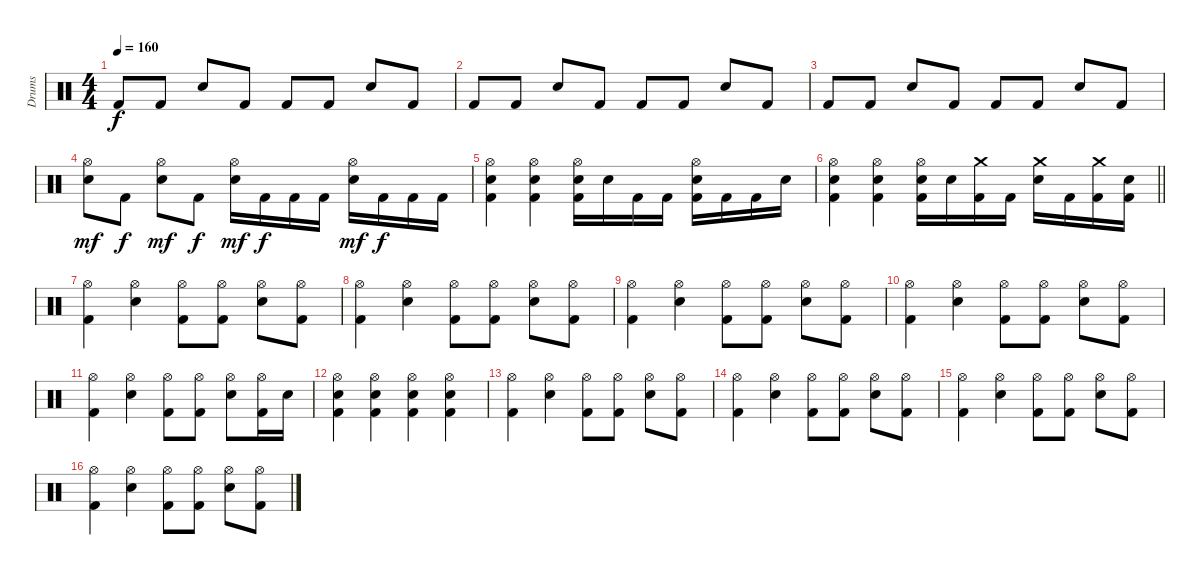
\track ("Drums" "Drums") {instrument percussion}
\staff {score}
\articulation defaults
\ts (4 4)
\tempo 160
\clef neutral
\ks c "Kick (hit) 2".8{dy f} "Kick (hit) 2".8 "Snare (hit) 2".8 "Kick (hit) 2".8 "Kick (hit) 2".8 "Kick (hit) 2".8 "Snare (hit) 2".8 "Kick (hit) 2".8
|
"Kick (hit) 2".8 "Kick (hit) 2".8 "Snare (hit) 2".8 "Kick (hit) 2".8 "Kick (hit) 2".8 "Kick (hit) 2".8 "Snare (hit) 2".8 "Kick (hit) 2".8 |
"Kick (hit) 2".8 "Kick (hit) 2".8 "Snare (hit) 2".8 "Kick (hit) 2".8 "Kick (hit) 2".8 "Kick (hit) 2".8 "Snare (hit) 2".8 "Kick (hit) 2".8 |
("Hi-Hat (open)" "Snare (hit) 2").8{dy mf} "Kick (hit) 2".8{dy f} ("Hi-Hat (open)" "Snare (hit) 2").8{dy mf} "Kick (hit) 2".8{dy f} ("Hi-Hat (open)" "Snare (hit) 2").16{dy mf} "Kick (hit) 2".16{dy f} "Kick (hit) 2".16 "Kick (hit) 2".16 ("Hi-Hat (open)" "Snare (hit) 2").16{dy mf} "Kick (hit) 2".16{dy f} "Kick (hit) 2".16 "Kick (hit) 2".16 |
("Hi-Hat (open)" "Snare (hit) 2" "Kick (hit) 2").4 ("Hi-Hat (open)" "Snare (hit) 2" "Kick (hit) 2").4 ("Hi-Hat (open)" "Snare (hit) 2" "Kick (hit) 2").16 "Snare (hit) 2".16 "Kick (hit) 2".16 "Kick (hit) 2".16 ("Hi-Hat (open)" "Snare (hit) 2" "Kick (hit) 2").16 "Kick (hit) 2".16 "Kick (hit) 2".16 "Snare (hit) 2".16 |
\barLineRight lightlight
("Hi-Hat (open)" "Snare (hit) 2" "Kick (hit) 2").4 ("Hi-Hat (open)" "Snare (hit) 2" "Kick (hit) 2").4 ("Hi-Hat (open)" "Snare (hit) 2" "Kick (hit) 2").16 "Snare (hit) 2".16 ("Crash medium (hit)" "Kick (hit) 2").16 "Kick (hit) 2".16 ("Crash medium (hit)" "Snare (hit) 2").16 "Kick (hit) 2".16 ("Crash medium (hit)" "Kick (hit) 2").16 ("Snare (hit) 2" "Kick (hit) 2").16 |
("Hi-Hat (open)" "Kick (hit) 2").4 ("Hi-Hat (open)" "Snare (hit) 2").4 ("Hi-Hat (open)" "Kick (hit) 2").8 ("Hi-Hat (open)" "Kick (hit) 2").8 ("Hi-Hat (open)" "Snare (hit) 2").8 ("Hi-Hat (open)" "Kick (hit) 2").8 |
("Hi-Hat (open)" "Kick (hit) 2").4 ("Hi-Hat (open)" "Snare (hit) 2").4 ("Hi-Hat (open)" "Kick (hit) 2").8 ("Hi-Hat (open)" "Kick (hit) 2").8 ("Hi-Hat (open)" "Snare (hit) 2").8 ("Hi-Hat (open)" "Kick (hit) 2").8 |
("Hi-Hat (open)" "Kick (hit) 2").4 ("Hi-Hat (open)" "Snare (hit) 2").4 ("Hi-Hat (open)" "Kick (hit) 2").8 ("Hi-Hat (open)" "Kick (hit) 2").8 ("Hi-Hat (open)" "Snare (hit) 2").8 ("Hi-Hat (open)" "Kick (hit) 2").8 |
("Hi-Hat (open)" "Kick (hit) 2").4 ("Hi-Hat (open)" "Snare (hit) 2").4 ("Hi-Hat (open)" "Kick (hit) 2").8 ("Hi-Hat (open)" "Kick (hit) 2").8 ("Hi-Hat (open)" "Snare (hit) 2").8 ("Hi-Hat (open)" "Kick (hit) 2").8 |
("Hi-Hat (open)" "Kick (hit) 2").4 ("Hi-Hat (open)" "Snare (hit) 2").4 ("Hi-Hat (open)" "Kick (hit) 2").8 ("Hi-Hat (open)" "Kick (hit) 2").8 ("Hi-Hat (open)" "Snare (hit) 2").8 ("Hi-Hat (open)" "Kick (hit) 2").16 "Snare (hit) 2".16 |
("Hi-Hat (open)" "Snare (hit) 2" "Kick (hit) 2").4 ("Hi-Hat (open)" "Snare (hit) 2" "Kick (hit) 2").4 ("Hi-Hat (open)" "Snare (hit) 2" "Kick (hit) 2").4 ("Hi-Hat (open)" "Snare (hit) 2" "Kick (hit) 2").4 |
("Hi-Hat (open)" "Kick (hit) 2").4 ("Hi-Hat (open)" "Snare (hit) 2").4 ("Hi-Hat (open)" "Kick (hit) 2").8 ("Hi-Hat (open)" "Kick (hit) 2").8 ("Hi-Hat (open)" "Snare (hit) 2").8 ("Hi-Hat (open)" "Kick (hit) 2").8 |
("Hi-Hat (open)" "Kick (hit) 2").4 ("Hi-Hat (open)" "Snare (hit) 2").4 ("Hi-Hat (open)" "Kick (hit) 2").8 ("Hi-Hat (open)" "Kick (hit) 2").8 ("Hi-Hat (open)" "Snare (hit) 2").8 ("Hi-Hat (open)" "Kick (hit) 2").8 |
("Hi-Hat (open)" "Kick (hit) 2").4 ("Hi-Hat (open)" "Snare (hit) 2").4 ("Hi-Hat (open)" "Kick (hit) 2").8 ("Hi-Hat (open)" "Kick (hit) 2").8 ("Hi-Hat (open)" "Snare (hit) 2").8 ("Hi-Hat (open)" "Kick (hit) 2").8 |
("Hi-Hat (open)" "Kick (hit) 2").4 ("Hi-Hat (open)" "Snare (hit) 2").4 ("Hi-Hat (open)" "Kick (hit) 2").8 ("Hi-Hat (open)" "Kick (hit) 2").8 ("Hi-Hat (open)" "Snare (hit) 2").8 ("Hi-Hat (open)" "Kick (hit) 2").8
